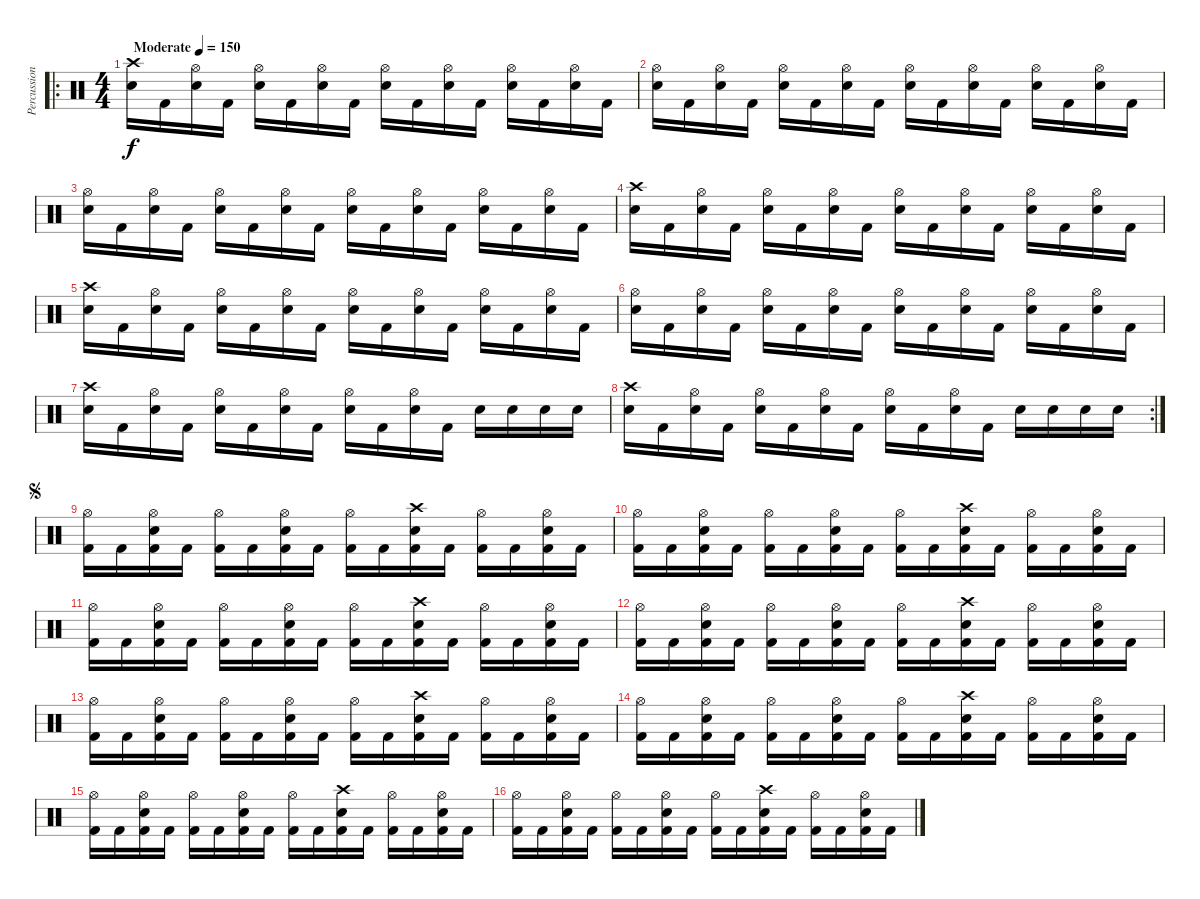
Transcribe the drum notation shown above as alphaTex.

\track ("Percussion" "Percussion") {instrument percussion}
\staff {score}
\articulation defaults
\ro
\ts (4 4)
\tempo (150 "Moderate")
\clef neutral
\ks c
("Crash high (hit)" "Electric Snare (hit)").16{dy f} "Kick (hit) 2".16 ("Hi-Hat (open)" "Electric Snare (hit)").16 "Kick (hit) 2".16 ("Hi-Hat (open)" "Electric Snare (hit)").16 "Kick (hit) 2".16 ("Hi-Hat (open)" "Electric Snare (hit)").16 "Kick (hit) 2".16 ("Hi-Hat (open)" "Electric Snare (hit)").16 "Kick (hit) 2".16 ("Hi-Hat (open)" "Electric Snare (hit)").16 "Kick (hit) 2".16 ("Hi-Hat (open)" "Electric Snare (hit)").16 "Kick (hit) 2".16 ("Hi-Hat (open)" "Electric Snare (hit)").16 "Kick (hit) 2".16 |
("Hi-Hat (open)" "Electric Snare (hit)").16 "Kick (hit) 2".16 ("Hi-Hat (open)" "Electric Snare (hit)").16 "Kick (hit) 2".16 ("Hi-Hat (open)" "Electric Snare (hit)").16 "Kick (hit) 2".16 ("Hi-Hat (open)" "Electric Snare (hit)").16 "Kick (hit) 2".16 ("Hi-Hat (open)" "Electric Snare (hit)").16 "Kick (hit) 2".16 ("Hi-Hat (open)" "Electric Snare (hit)").16 "Kick (hit) 2".16 ("Hi-Hat (open)" "Electric Snare (hit)").16 "Kick (hit) 2".16 ("Hi-Hat (open)" "Electric Snare (hit)").16 "Kick (hit) 2".16 |
("Hi-Hat (open)" "Electric Snare (hit)").16 "Kick (hit) 2".16 ("Hi-Hat (open)" "Electric Snare (hit)").16 "Kick (hit) 2".16 ("Hi-Hat (open)" "Electric Snare (hit)").16 "Kick (hit) 2".16 ("Hi-Hat (open)" "Electric Snare (hit)").16 "Kick (hit) 2".16 ("Hi-Hat (open)" "Electric Snare (hit)").16 "Kick (hit) 2".16 ("Hi-Hat (open)" "Electric Snare (hit)").16 "Kick (hit) 2".16 ("Hi-Hat (open)" "Electric Snare (hit)").16 "Kick (hit) 2".16 ("Hi-Hat (open)" "Electric Snare (hit)").16 "Kick (hit) 2".16 |
("Crash high (hit)" "Electric Snare (hit)").16 "Kick (hit) 2".16 ("Hi-Hat (open)" "Electric Snare (hit)").16 "Kick (hit) 2".16 ("Hi-Hat (open)" "Electric Snare (hit)").16 "Kick (hit) 2".16 ("Hi-Hat (open)" "Electric Snare (hit)").16 "Kick (hit) 2".16 ("Hi-Hat (open)" "Electric Snare (hit)").16 "Kick (hit) 2".16 ("Hi-Hat (open)" "Electric Snare (hit)").16 "Kick (hit) 2".16 ("Hi-Hat (open)" "Electric Snare (hit)").16 "Kick (hit) 2".16 ("Hi-Hat (open)" "Electric Snare (hit)").16 "Kick (hit) 2".16 |
("Crash high (hit)" "Electric Snare (hit)").16 "Kick (hit) 2".16 ("Hi-Hat (open)" "Electric Snare (hit)").16 "Kick (hit) 2".16 ("Hi-Hat (open)" "Electric Snare (hit)").16 "Kick (hit) 2".16 ("Hi-Hat (open)" "Electric Snare (hit)").16 "Kick (hit) 2".16 ("Hi-Hat (open)" "Electric Snare (hit)").16 "Kick (hit) 2".16 ("Hi-Hat (open)" "Electric Snare (hit)").16 "Kick (hit) 2".16 ("Hi-Hat (open)" "Electric Snare (hit)").16 "Kick (hit) 2".16 ("Hi-Hat (open)" "Electric Snare (hit)").16 "Kick (hit) 2".16 |
("Hi-Hat (open)" "Electric Snare (hit)").16 "Kick (hit) 2".16 ("Hi-Hat (open)" "Electric Snare (hit)").16 "Kick (hit) 2".16 ("Hi-Hat (open)" "Electric Snare (hit)").16 "Kick (hit) 2".16 ("Hi-Hat (open)" "Electric Snare (hit)").16 "Kick (hit) 2".16 ("Hi-Hat (open)" "Electric Snare (hit)").16 "Kick (hit) 2".16 ("Hi-Hat (open)" "Electric Snare (hit)").16 "Kick (hit) 2".16 ("Hi-Hat (open)" "Electric Snare (hit)").16 "Kick (hit) 2".16 ("Hi-Hat (open)" "Electric Snare (hit)").16 "Kick (hit) 2".16 |
("Crash high (hit)" "Electric Snare (hit)").16 "Kick (hit) 2".16 ("Hi-Hat (open)" "Electric Snare (hit)").16 "Kick (hit) 2".16 ("Hi-Hat (open)" "Electric Snare (hit)").16 "Kick (hit) 2".16 ("Hi-Hat (open)" "Electric Snare (hit)").16 "Kick (hit) 2".16 ("Hi-Hat (open)" "Electric Snare (hit)").16 "Kick (hit) 2".16 ("Hi-Hat (open)" "Electric Snare (hit)").16 "Kick (hit) 2".16 "Electric Snare (hit)".16 "Electric Snare (hit)".16 "Electric Snare (hit)".16 "Electric Snare (hit)".16 |
\rc 2
("Crash high (hit)" "Electric Snare (hit)").16 "Kick (hit) 2".16 ("Hi-Hat (open)" "Electric Snare (hit)").16 "Kick (hit) 2".16 ("Hi-Hat (open)" "Electric Snare (hit)").16 "Kick (hit) 2".16 ("Hi-Hat (open)" "Electric Snare (hit)").16 "Kick (hit) 2".16 ("Hi-Hat (open)" "Electric Snare (hit)").16 "Kick (hit) 2".16 ("Hi-Hat (open)" "Electric Snare (hit)").16 "Kick (hit) 2".16 "Electric Snare (hit)".16 "Electric Snare (hit)".16 "Electric Snare (hit)".16 "Electric Snare (hit)".16 |
\jump segno
("Hi-Hat (open)" "Kick (hit) 2").16 "Kick (hit) 2".16 ("Hi-Hat (open)" "Electric Snare (hit)" "Kick (hit) 2").16 "Kick (hit) 2".16 ("Hi-Hat (open)" "Kick (hit) 2").16 "Kick (hit) 2".16 ("Hi-Hat (open)" "Electric Snare (hit)" "Kick (hit) 2").16 "Kick (hit) 2".16 ("Hi-Hat (open)" "Kick (hit) 2").16 "Kick (hit) 2".16 ("Crash high (hit)" "Electric Snare (hit)" "Kick (hit) 2").16 "Kick (hit) 2".16 ("Hi-Hat (open)" "Kick (hit) 2").16 "Kick (hit) 2".16 ("Hi-Hat (open)" "Electric Snare (hit)" "Kick (hit) 2").16 "Kick (hit) 2".16 |
("Hi-Hat (open)" "Kick (hit) 2").16 "Kick (hit) 2".16 ("Hi-Hat (open)" "Electric Snare (hit)" "Kick (hit) 2").16 "Kick (hit) 2".16 ("Hi-Hat (open)" "Kick (hit) 2").16 "Kick (hit) 2".16 ("Hi-Hat (open)" "Electric Snare (hit)" "Kick (hit) 2").16 "Kick (hit) 2".16 ("Hi-Hat (open)" "Kick (hit) 2").16 "Kick (hit) 2".16 ("Crash high (hit)" "Electric Snare (hit)" "Kick (hit) 2").16 "Kick (hit) 2".16 ("Hi-Hat (open)" "Kick (hit) 2").16 "Kick (hit) 2".16 ("Hi-Hat (open)" "Electric Snare (hit)" "Kick (hit) 2").16 "Kick (hit) 2".16 |
("Hi-Hat (open)" "Kick (hit) 2").16 "Kick (hit) 2".16 ("Hi-Hat (open)" "Electric Snare (hit)" "Kick (hit) 2").16 "Kick (hit) 2".16 ("Hi-Hat (open)" "Kick (hit) 2").16 "Kick (hit) 2".16 ("Hi-Hat (open)" "Electric Snare (hit)" "Kick (hit) 2").16 "Kick (hit) 2".16 ("Hi-Hat (open)" "Kick (hit) 2").16 "Kick (hit) 2".16 ("Crash high (hit)" "Electric Snare (hit)" "Kick (hit) 2").16 "Kick (hit) 2".16 ("Hi-Hat (open)" "Kick (hit) 2").16 "Kick (hit) 2".16 ("Hi-Hat (open)" "Electric Snare (hit)" "Kick (hit) 2").16 "Kick (hit) 2".16 |
("Hi-Hat (open)" "Kick (hit) 2").16 "Kick (hit) 2".16 ("Hi-Hat (open)" "Electric Snare (hit)" "Kick (hit) 2").16 "Kick (hit) 2".16 ("Hi-Hat (open)" "Kick (hit) 2").16 "Kick (hit) 2".16 ("Hi-Hat (open)" "Electric Snare (hit)" "Kick (hit) 2").16 "Kick (hit) 2".16 ("Hi-Hat (open)" "Kick (hit) 2").16 "Kick (hit) 2".16 ("Crash high (hit)" "Electric Snare (hit)" "Kick (hit) 2").16 "Kick (hit) 2".16 ("Hi-Hat (open)" "Kick (hit) 2").16 "Kick (hit) 2".16 ("Hi-Hat (open)" "Electric Snare (hit)" "Kick (hit) 2").16 "Kick (hit) 2".16 |
("Hi-Hat (open)" "Kick (hit) 2").16 "Kick (hit) 2".16 ("Hi-Hat (open)" "Electric Snare (hit)" "Kick (hit) 2").16 "Kick (hit) 2".16 ("Hi-Hat (open)" "Kick (hit) 2").16 "Kick (hit) 2".16 ("Hi-Hat (open)" "Electric Snare (hit)" "Kick (hit) 2").16 "Kick (hit) 2".16 ("Hi-Hat (open)" "Kick (hit) 2").16 "Kick (hit) 2".16 ("Crash high (hit)" "Electric Snare (hit)" "Kick (hit) 2").16 "Kick (hit) 2".16 ("Hi-Hat (open)" "Kick (hit) 2").16 "Kick (hit) 2".16 ("Hi-Hat (open)" "Electric Snare (hit)" "Kick (hit) 2").16 "Kick (hit) 2".16 |
("Hi-Hat (open)" "Kick (hit) 2").16 "Kick (hit) 2".16 ("Hi-Hat (open)" "Electric Snare (hit)" "Kick (hit) 2").16 "Kick (hit) 2".16 ("Hi-Hat (open)" "Kick (hit) 2").16 "Kick (hit) 2".16 ("Hi-Hat (open)" "Electric Snare (hit)" "Kick (hit) 2").16 "Kick (hit) 2".16 ("Hi-Hat (open)" "Kick (hit) 2").16 "Kick (hit) 2".16 ("Crash high (hit)" "Electric Snare (hit)" "Kick (hit) 2").16 "Kick (hit) 2".16 ("Hi-Hat (open)" "Kick (hit) 2").16 "Kick (hit) 2".16 ("Hi-Hat (open)" "Electric Snare (hit)" "Kick (hit) 2").16 "Kick (hit) 2".16 |
("Hi-Hat (open)" "Kick (hit) 2").16 "Kick (hit) 2".16 ("Hi-Hat (open)" "Electric Snare (hit)" "Kick (hit) 2").16 "Kick (hit) 2".16 ("Hi-Hat (open)" "Kick (hit) 2").16 "Kick (hit) 2".16 ("Hi-Hat (open)" "Electric Snare (hit)" "Kick (hit) 2").16 "Kick (hit) 2".16 ("Hi-Hat (open)" "Kick (hit) 2").16 "Kick (hit) 2".16 ("Crash high (hit)" "Electric Snare (hit)" "Kick (hit) 2").16 "Kick (hit) 2".16 ("Hi-Hat (open)" "Kick (hit) 2").16 "Kick (hit) 2".16 ("Hi-Hat (open)" "Electric Snare (hit)" "Kick (hit) 2").16 "Kick (hit) 2".16 |
("Hi-Hat (open)" "Kick (hit) 2").16 "Kick (hit) 2".16 ("Hi-Hat (open)" "Electric Snare (hit)" "Kick (hit) 2").16 "Kick (hit) 2".16 ("Hi-Hat (open)" "Kick (hit) 2").16 "Kick (hit) 2".16 ("Hi-Hat (open)" "Electric Snare (hit)" "Kick (hit) 2").16 "Kick (hit) 2".16 ("Hi-Hat (open)" "Kick (hit) 2").16 "Kick (hit) 2".16 ("Crash high (hit)" "Electric Snare (hit)" "Kick (hit) 2").16 "Kick (hit) 2".16 ("Hi-Hat (open)" "Kick (hit) 2").16 "Kick (hit) 2".16 ("Hi-Hat (open)" "Electric Snare (hit)" "Kick (hit) 2").16 "Kick (hit) 2".16
